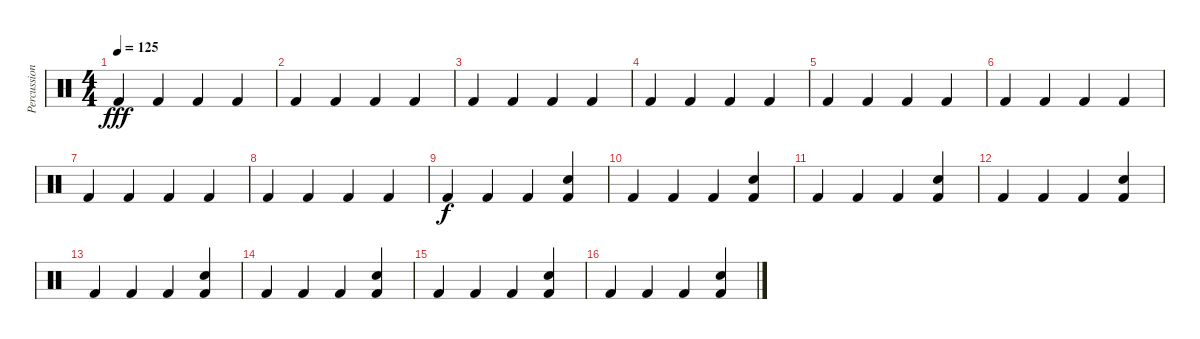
\track ("Percussion" "Percussion") {instrument percussion}
\staff {score}
\articulation defaults
\ts (4 4)
\tempo 125
\clef neutral
\ks c "Kick (hit) 2".4{dy fff} "Kick (hit) 2".4 "Kick (hit) 2".4 "Kick (hit) 2".4
|
"Kick (hit) 2".4 "Kick (hit) 2".4 "Kick (hit) 2".4 "Kick (hit) 2".4 |
"Kick (hit) 2".4 "Kick (hit) 2".4 "Kick (hit) 2".4 "Kick (hit) 2".4 |
"Kick (hit) 2".4 "Kick (hit) 2".4 "Kick (hit) 2".4 "Kick (hit) 2".4 |
"Kick (hit) 2".4 "Kick (hit) 2".4 "Kick (hit) 2".4 "Kick (hit) 2".4 |
"Kick (hit) 2".4 "Kick (hit) 2".4 "Kick (hit) 2".4 "Kick (hit) 2".4 |
"Kick (hit) 2".4 "Kick (hit) 2".4 "Kick (hit) 2".4 "Kick (hit) 2".4 |
"Kick (hit) 2".4 "Kick (hit) 2".4 "Kick (hit) 2".4 "Kick (hit) 2".4 |
"Kick (hit) 2".4{dy f} "Kick (hit) 2".4 "Kick (hit) 2".4 ("Kick (hit) 2" "Electric Snare (hit)").4 |
"Kick (hit) 2".4 "Kick (hit) 2".4 "Kick (hit) 2".4 ("Kick (hit) 2" "Electric Snare (hit)").4 |
"Kick (hit) 2".4 "Kick (hit) 2".4 "Kick (hit) 2".4 ("Kick (hit) 2" "Electric Snare (hit)").4 |
"Kick (hit) 2".4 "Kick (hit) 2".4 "Kick (hit) 2".4 ("Kick (hit) 2" "Electric Snare (hit)").4 |
"Kick (hit) 2".4 "Kick (hit) 2".4 "Kick (hit) 2".4 ("Kick (hit) 2" "Electric Snare (hit)").4 |
"Kick (hit) 2".4 "Kick (hit) 2".4 "Kick (hit) 2".4 ("Kick (hit) 2" "Electric Snare (hit)").4 |
"Kick (hit) 2".4 "Kick (hit) 2".4 "Kick (hit) 2".4 ("Kick (hit) 2" "Electric Snare (hit)").4 |
"Kick (hit) 2".4 "Kick (hit) 2".4 "Kick (hit) 2".4 ("Kick (hit) 2" "Electric Snare (hit)").4
